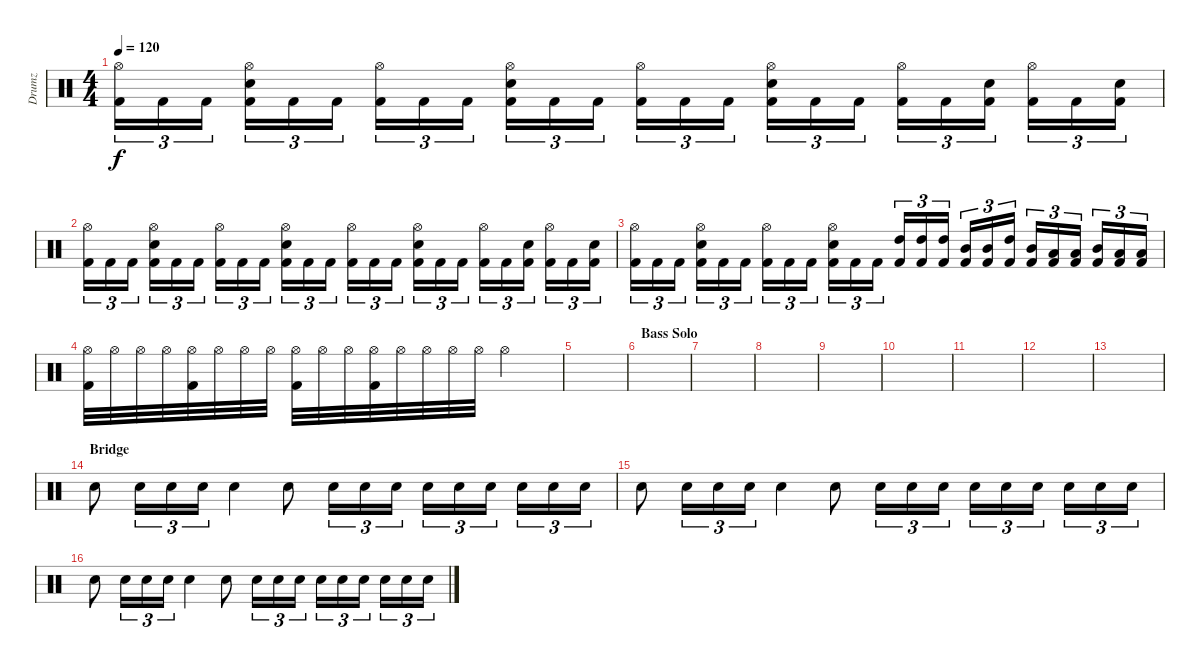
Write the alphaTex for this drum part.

\track ("Drumz" "Drumz") {instrument percussion}
\staff {score}
\articulation defaults
\ts (4 4)
\tempo 120
\clef neutral
\ks c
("Hi-Hat (open)" "Kick (hit) 2").16{tu (3 2) dy f} "Kick (hit) 2".16{tu (3 2)} "Kick (hit) 2".16{tu (3 2)} ("Hi-Hat (open)" "Snare (hit) 2" "Kick (hit) 2").16{tu (3 2)} "Kick (hit) 2".16{tu (3 2)} "Kick (hit) 2".16{tu (3 2)} ("Hi-Hat (open)" "Kick (hit) 2").16{tu (3 2)} "Kick (hit) 2".16{tu (3 2)} "Kick (hit) 2".16{tu (3 2)} ("Hi-Hat (open)" "Snare (hit) 2" "Kick (hit) 2").16{tu (3 2)} "Kick (hit) 2".16{tu (3 2)} "Kick (hit) 2".16{tu (3 2)} ("Hi-Hat (open)" "Kick (hit) 2").16{tu (3 2)} "Kick (hit) 2".16{tu (3 2)} "Kick (hit) 2".16{tu (3 2)} ("Hi-Hat (open)" "Snare (hit) 2" "Kick (hit) 2").16{tu (3 2)} "Kick (hit) 2".16{tu (3 2)} "Kick (hit) 2".16{tu (3 2)} ("Hi-Hat (open)" "Kick (hit) 2").16{tu (3 2)} "Kick (hit) 2".16{tu (3 2)} ("Snare (hit) 2" "Kick (hit) 2").16{tu (3 2)} ("Hi-Hat (open)" "Kick (hit) 2").16{tu (3 2)} "Kick (hit) 2".16{tu (3 2)} ("Snare (hit) 2" "Kick (hit) 2").16{tu (3 2)} |
("Hi-Hat (open)" "Kick (hit) 2").16{tu (3 2)} "Kick (hit) 2".16{tu (3 2)} "Kick (hit) 2".16{tu (3 2)} ("Hi-Hat (open)" "Snare (hit) 2" "Kick (hit) 2").16{tu (3 2)} "Kick (hit) 2".16{tu (3 2)} "Kick (hit) 2".16{tu (3 2)} ("Hi-Hat (open)" "Kick (hit) 2").16{tu (3 2)} "Kick (hit) 2".16{tu (3 2)} "Kick (hit) 2".16{tu (3 2)} ("Hi-Hat (open)" "Snare (hit) 2" "Kick (hit) 2").16{tu (3 2)} "Kick (hit) 2".16{tu (3 2)} "Kick (hit) 2".16{tu (3 2)} ("Hi-Hat (open)" "Kick (hit) 2").16{tu (3 2)} "Kick (hit) 2".16{tu (3 2)} "Kick (hit) 2".16{tu (3 2)} ("Hi-Hat (open)" "Snare (hit) 2" "Kick (hit) 2").16{tu (3 2)} "Kick (hit) 2".16{tu (3 2)} "Kick (hit) 2".16{tu (3 2)} ("Hi-Hat (open)" "Kick (hit) 2").16{tu (3 2)} "Kick (hit) 2".16{tu (3 2)} ("Snare (hit) 2" "Kick (hit) 2").16{tu (3 2)} ("Hi-Hat (open)" "Kick (hit) 2").16{tu (3 2)} "Kick (hit) 2".16{tu (3 2)} ("Snare (hit) 2" "Kick (hit) 2").16{tu (3 2)} |
("Hi-Hat (open)" "Kick (hit) 2").16{tu (3 2)} "Kick (hit) 2".16{tu (3 2)} "Kick (hit) 2".16{tu (3 2)} ("Hi-Hat (open)" "Snare (hit) 2" "Kick (hit) 2").16{tu (3 2)} "Kick (hit) 2".16{tu (3 2)} "Kick (hit) 2".16{tu (3 2)} ("Hi-Hat (open)" "Kick (hit) 2").16{tu (3 2)} "Kick (hit) 2".16{tu (3 2)} "Kick (hit) 2".16{tu (3 2)} ("Hi-Hat (open)" "Snare (hit) 2" "Kick (hit) 2").16{tu (3 2)} "Kick (hit) 2".16{tu (3 2)} "Kick (hit) 2".16{tu (3 2)} ("High Tom (hit)" "Kick (hit) 2").16{tu (3 2)} ("High Tom (hit)" "Kick (hit) 2").16{tu (3 2)} ("High Tom (hit)" "Kick (hit) 2").16{tu (3 2)} ("Mid Tom (hit)" "Kick (hit) 2").16{tu (3 2)} ("Mid Tom (hit)" "Kick (hit) 2").16{tu (3 2)} ("High Tom (hit)" "Kick (hit) 2").16{tu (3 2)} ("Mid Tom (hit)" "Kick (hit) 2").16{tu (3 2)} ("Low Tom (hit)" "Kick (hit) 2").16{tu (3 2)} ("Low Tom (hit)" "Kick (hit) 2").16{tu (3 2)} ("Mid Tom (hit)" "Kick (hit) 2").16{tu (3 2)} ("Low Tom (hit)" "Kick (hit) 2").16{tu (3 2)} ("Low Tom (hit)" "Kick (hit) 2").16{tu (3 2)} |
("Hi-Hat (open)" "Kick (hit) 2").32 "Hi-Hat (open)".32 "Hi-Hat (open)".32 "Hi-Hat (open)".32 ("Hi-Hat (open)" "Kick (hit) 2").32 "Hi-Hat (open)".32 "Hi-Hat (open)".32 "Hi-Hat (open)".32 ("Hi-Hat (open)" "Kick (hit) 2").32 "Hi-Hat (open)".32 "Hi-Hat (open)".32 ("Hi-Hat (open)" "Kick (hit) 2").32 "Hi-Hat (open)".32 "Hi-Hat (open)".32 "Hi-Hat (open)".32 "Hi-Hat (open)".32 "Hi-Hat (open)".2 |
|
\section ("" "Bass Solo")
|
|
|
|
|
|
|
|
\section ("" "Bridge")
"Snare (hit) 2".8 "Snare (hit) 2".16{tu (3 2)} "Snare (hit) 2".16{tu (3 2)} "Snare (hit) 2".16{tu (3 2)} "Snare (hit) 2".4 "Snare (hit) 2".8 "Snare (hit) 2".16{tu (3 2)} "Snare (hit) 2".16{tu (3 2)} "Snare (hit) 2".16{tu (3 2)} "Snare (hit) 2".16{tu (3 2)} "Snare (hit) 2".16{tu (3 2)} "Snare (hit) 2".16{tu (3 2)} "Snare (hit) 2".16{tu (3 2)} "Snare (hit) 2".16{tu (3 2)} "Snare (hit) 2".16{tu (3 2)} |
"Snare (hit) 2".8 "Snare (hit) 2".16{tu (3 2)} "Snare (hit) 2".16{tu (3 2)} "Snare (hit) 2".16{tu (3 2)} "Snare (hit) 2".4 "Snare (hit) 2".8 "Snare (hit) 2".16{tu (3 2)} "Snare (hit) 2".16{tu (3 2)} "Snare (hit) 2".16{tu (3 2)} "Snare (hit) 2".16{tu (3 2)} "Snare (hit) 2".16{tu (3 2)} "Snare (hit) 2".16{tu (3 2)} "Snare (hit) 2".16{tu (3 2)} "Snare (hit) 2".16{tu (3 2)} "Snare (hit) 2".16{tu (3 2)} |
"Snare (hit) 2".8 "Snare (hit) 2".16{tu (3 2)} "Snare (hit) 2".16{tu (3 2)} "Snare (hit) 2".16{tu (3 2)} "Snare (hit) 2".4 "Snare (hit) 2".8 "Snare (hit) 2".16{tu (3 2)} "Snare (hit) 2".16{tu (3 2)} "Snare (hit) 2".16{tu (3 2)} "Snare (hit) 2".16{tu (3 2)} "Snare (hit) 2".16{tu (3 2)} "Snare (hit) 2".16{tu (3 2)} "Snare (hit) 2".16{tu (3 2)} "Snare (hit) 2".16{tu (3 2)} "Snare (hit) 2".16{tu (3 2)}
